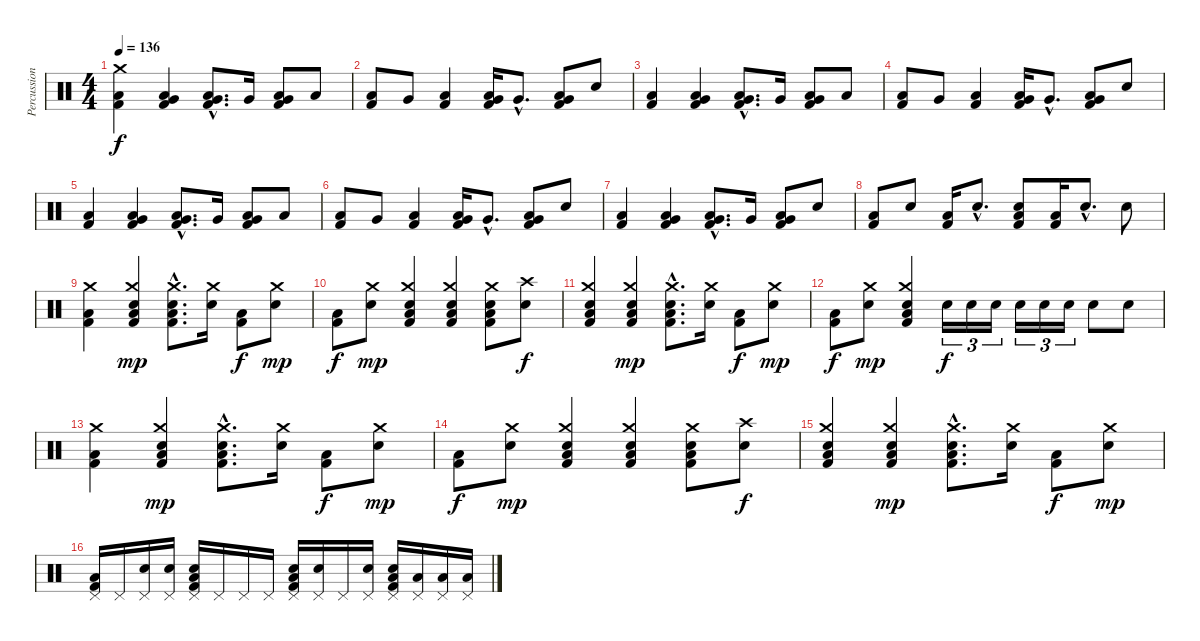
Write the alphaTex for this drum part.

\track ("Percussions" "Percussion") {instrument percussion}
\staff {score}
\articulation defaults
\ts (4 4)
\tempo 136
\clef neutral
\ks c
("Kick (hit) 2" "Low Floor Tom (hit)" "Crash medium (hit)").4{dy f} ("Kick (hit) 2" "Low Floor Tom (hit)" "Very Low Tom (hit)").4 ("Kick (hit) 2"{hac} "Low Floor Tom (hit)"{hac} "Very Low Tom (hit)"{hac}).8{d} "Very Low Tom (hit)".16 ("Kick (hit) 2" "Low Floor Tom (hit)" "Very Low Tom (hit)").8 "Low Tom (hit)".8 |
("Kick (hit) 2" "Low Floor Tom (hit)").8 "Very Low Tom (hit)".8 ("Kick (hit) 2" "Low Floor Tom (hit)").4 ("Kick (hit) 2" "Low Floor Tom (hit)" "Very Low Tom (hit)").16 "Very Low Tom (hit)"{hac}.8{d} ("Kick (hit) 2" "Low Floor Tom (hit)" "Very Low Tom (hit)").8 "Snare (hit) 2".8 |
("Kick (hit) 2" "Low Floor Tom (hit)").4 ("Kick (hit) 2" "Low Floor Tom (hit)" "Very Low Tom (hit)").4 ("Kick (hit) 2"{hac} "Low Floor Tom (hit)"{hac} "Very Low Tom (hit)"{hac}).8{d} "Very Low Tom (hit)".16 ("Kick (hit) 2" "Low Floor Tom (hit)" "Very Low Tom (hit)").8 "Low Tom (hit)".8 |
("Kick (hit) 2" "Low Floor Tom (hit)").8 "Very Low Tom (hit)".8 ("Kick (hit) 2" "Low Floor Tom (hit)").4 ("Kick (hit) 2" "Low Floor Tom (hit)" "Very Low Tom (hit)").16 "Very Low Tom (hit)"{hac}.8{d} ("Kick (hit) 2" "Low Floor Tom (hit)" "Very Low Tom (hit)").8 "Snare (hit) 2".8 |
("Kick (hit) 2" "Low Floor Tom (hit)").4 ("Kick (hit) 2" "Low Floor Tom (hit)" "Very Low Tom (hit)").4 ("Kick (hit) 2"{hac} "Low Floor Tom (hit)"{hac} "Very Low Tom (hit)"{hac}).8{d} "Very Low Tom (hit)".16 ("Kick (hit) 2" "Low Floor Tom (hit)" "Very Low Tom (hit)").8 "Low Tom (hit)".8 |
("Kick (hit) 2" "Low Floor Tom (hit)").8 "Very Low Tom (hit)".8 ("Kick (hit) 2" "Low Floor Tom (hit)").4 ("Kick (hit) 2" "Low Floor Tom (hit)" "Very Low Tom (hit)").16 "Very Low Tom (hit)"{hac}.8{d} ("Kick (hit) 2" "Low Floor Tom (hit)" "Very Low Tom (hit)").8 "Snare (hit) 2".8 |
("Kick (hit) 2" "Low Floor Tom (hit)").4 ("Kick (hit) 2" "Low Floor Tom (hit)" "Very Low Tom (hit)").4 ("Kick (hit) 2"{hac} "Low Floor Tom (hit)"{hac} "Very Low Tom (hit)"{hac}).8{d} "Very Low Tom (hit)".16 ("Kick (hit) 2" "Low Floor Tom (hit)" "Very Low Tom (hit)").8 "Snare (hit) 2".8 |
("Kick (hit) 2" "Low Floor Tom (hit)").8 "Snare (hit) 2".8 ("Kick (hit) 2" "Low Floor Tom (hit)").16 "Snare (hit) 2"{hac}.8{d} ("Kick (hit) 2" "Low Floor Tom (hit)" "Snare (hit) 2").8 ("Kick (hit) 2" "Low Floor Tom (hit)").16 "Snare (hit) 2"{hac}.8{d} "Snare (hit) 2".8 |
("Kick (hit) 2" "Low Floor Tom (hit)" "Crash medium (hit)").4 ("Kick (hit) 2" "Low Floor Tom (hit)" "Snare (hit) 2" "Crash medium (hit)").4{dy mp} ("Kick (hit) 2"{hac} "Low Floor Tom (hit)"{hac} "Snare (hit) 2"{hac} "Crash medium (hit)"{hac}).8{d} ("Snare (hit) 2" "Crash medium (hit)").16 ("Kick (hit) 2" "Low Floor Tom (hit)").8{dy f} ("Snare (hit) 2" "Crash medium (hit)").8{dy mp} |
("Kick (hit) 2" "Low Floor Tom (hit)").8{dy f} ("Snare (hit) 2" "Crash medium (hit)").8{dy mp} ("Kick (hit) 2" "Low Floor Tom (hit)" "Snare (hit) 2" "Crash medium (hit)").4 ("Kick (hit) 2" "Low Floor Tom (hit)" "Snare (hit) 2" "Crash medium (hit)").4 ("Kick (hit) 2" "Low Floor Tom (hit)" "Snare (hit) 2" "Crash medium (hit)").8 ("Snare (hit) 2" "Crash high (hit)").8{dy f} |
("Kick (hit) 2" "Low Floor Tom (hit)" "Snare (hit) 2" "Crash medium (hit)").4 ("Kick (hit) 2" "Low Floor Tom (hit)" "Snare (hit) 2" "Crash medium (hit)").4{dy mp} ("Kick (hit) 2"{hac} "Low Floor Tom (hit)"{hac} "Snare (hit) 2"{hac} "Crash medium (hit)"{hac}).8{d} ("Snare (hit) 2" "Crash medium (hit)").16 ("Kick (hit) 2" "Low Floor Tom (hit)").8{dy f} ("Snare (hit) 2" "Crash medium (hit)").8{dy mp} |
("Kick (hit) 2" "Low Floor Tom (hit)").8{dy f} ("Snare (hit) 2" "Crash medium (hit)").8{dy mp} ("Kick (hit) 2" "Low Floor Tom (hit)" "Snare (hit) 2" "Crash medium (hit)").4 "Snare (hit) 2".16{tu (3 2) dy f} "Snare (hit) 2".16{tu (3 2)} "Snare (hit) 2".16{tu (3 2)} "Snare (hit) 2".16{tu (3 2)} "Snare (hit) 2".16{tu (3 2)} "Snare (hit) 2".16{tu (3 2)} "Snare (hit) 2".8 "Snare (hit) 2".8 |
("Kick (hit) 2" "Low Floor Tom (hit)" "Crash medium (hit)").4 ("Kick (hit) 2" "Low Floor Tom (hit)" "Snare (hit) 2" "Crash medium (hit)").4{dy mp} ("Kick (hit) 2"{hac} "Low Floor Tom (hit)"{hac} "Snare (hit) 2"{hac} "Crash medium (hit)"{hac}).8{d} ("Snare (hit) 2" "Crash medium (hit)").16 ("Kick (hit) 2" "Low Floor Tom (hit)").8{dy f} ("Snare (hit) 2" "Crash medium (hit)").8{dy mp} |
("Kick (hit) 2" "Low Floor Tom (hit)").8{dy f} ("Snare (hit) 2" "Crash medium (hit)").8{dy mp} ("Kick (hit) 2" "Low Floor Tom (hit)" "Snare (hit) 2" "Crash medium (hit)").4 ("Kick (hit) 2" "Low Floor Tom (hit)" "Snare (hit) 2" "Crash medium (hit)").4 ("Kick (hit) 2" "Low Floor Tom (hit)" "Snare (hit) 2" "Crash medium (hit)").8 ("Snare (hit) 2" "Crash high (hit)").8{dy f} |
("Kick (hit) 2" "Low Floor Tom (hit)" "Snare (hit) 2" "Crash medium (hit)").4 ("Kick (hit) 2" "Low Floor Tom (hit)" "Snare (hit) 2" "Crash medium (hit)").4{dy mp} ("Kick (hit) 2"{hac} "Low Floor Tom (hit)"{hac} "Snare (hit) 2"{hac} "Crash medium (hit)"{hac}).8{d} ("Snare (hit) 2" "Crash medium (hit)").16 ("Kick (hit) 2" "Low Floor Tom (hit)").8{dy f} ("Snare (hit) 2" "Crash medium (hit)").8{dy mp} |
("Kick (hit) 2" "Low Floor Tom (hit)" "Pedal Hi-Hat (hit)").16 "Pedal Hi-Hat (hit)".16 ("Snare (hit) 2" "Pedal Hi-Hat (hit)").16 ("Snare (hit) 2" "Pedal Hi-Hat (hit)").16 ("Kick (hit) 2" "Low Floor Tom (hit)" "Snare (hit) 2" "Pedal Hi-Hat (hit)").16 "Pedal Hi-Hat (hit)".16 "Pedal Hi-Hat (hit)".16 "Pedal Hi-Hat (hit)".16 ("Kick (hit) 2" "Low Floor Tom (hit)" "Snare (hit) 2" "Pedal Hi-Hat (hit)").16 ("Snare (hit) 2" "Pedal Hi-Hat (hit)").16 "Pedal Hi-Hat (hit)".16 ("Snare (hit) 2" "Pedal Hi-Hat (hit)").16 ("Kick (hit) 2" "Low Floor Tom (hit)" "Snare (hit) 2" "Pedal Hi-Hat (hit)").16 ("Low Tom (hit)" "Pedal Hi-Hat (hit)").16 ("Low Tom (hit)" "Pedal Hi-Hat (hit)").16 ("Low Tom (hit)" "Pedal Hi-Hat (hit)").16
